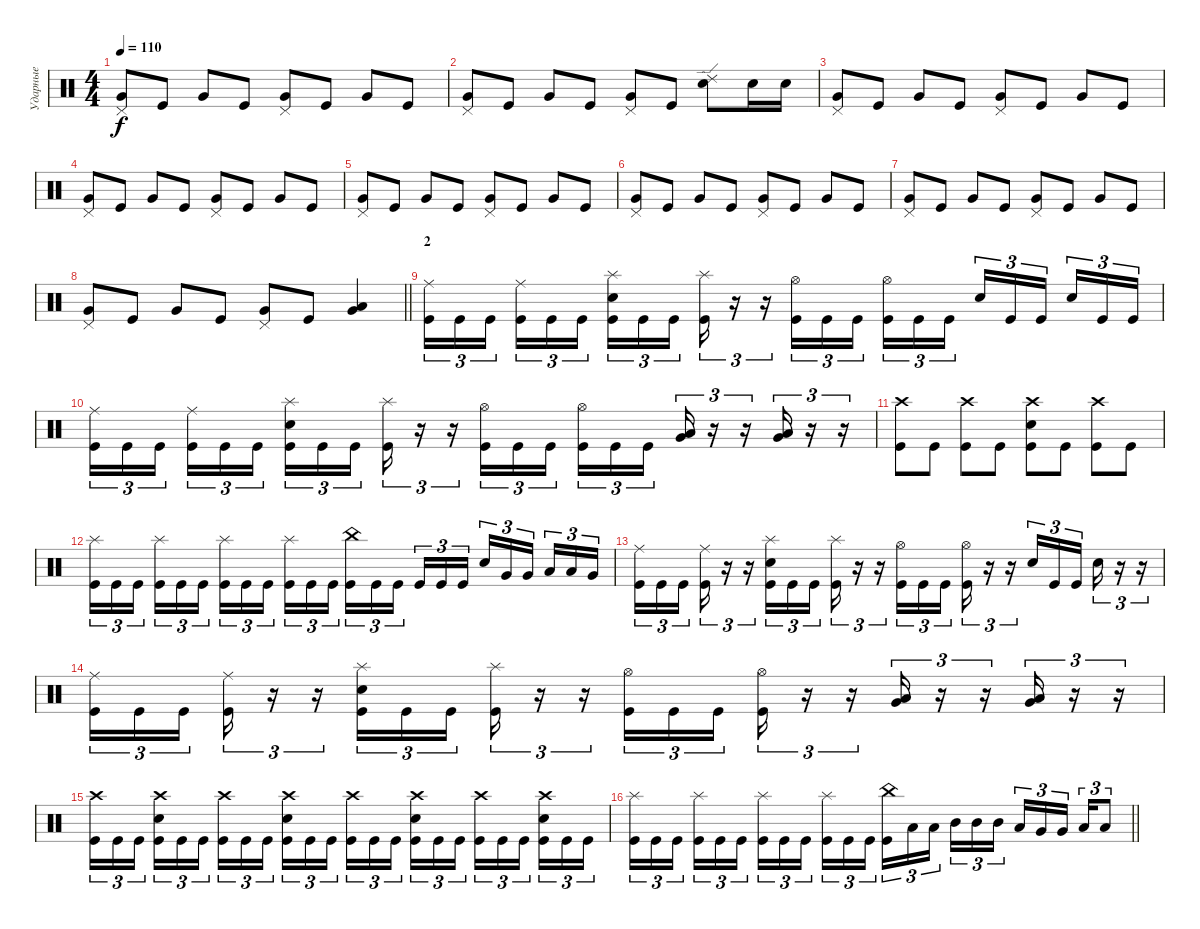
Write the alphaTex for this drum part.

\track ("Ударные" "Ударные") {instrument percussion}
\staff {score}
\articulation defaults
\ts (4 4)
\tempo 110
\clef neutral
\ks c
("Pedal Hi-Hat (hit)" "Very Low Tom (hit)").8{dy f} "Kick (hit)".8 "Very Low Tom (hit)".8 "Kick (hit)".8 ("Pedal Hi-Hat (hit)" "Very Low Tom (hit)").8 "Kick (hit)".8 "Very Low Tom (hit)".8 "Kick (hit)".8 |
("Pedal Hi-Hat (hit)" "Very Low Tom (hit)").8 "Kick (hit)".8 "Very Low Tom (hit)".8 "Kick (hit)".8 ("Pedal Hi-Hat (hit)" "Very Low Tom (hit)").8 "Kick (hit)".8 ("Ride (edge) 2" "Electric Snare (hit)").8 "Electric Snare (hit)".16 "Electric Snare (hit)".16 |
("Pedal Hi-Hat (hit)" "Very Low Tom (hit)").8 "Kick (hit)".8 "Very Low Tom (hit)".8 "Kick (hit)".8 ("Pedal Hi-Hat (hit)" "Very Low Tom (hit)").8 "Kick (hit)".8 "Very Low Tom (hit)".8 "Kick (hit)".8 |
("Pedal Hi-Hat (hit)" "Very Low Tom (hit)").8 "Kick (hit)".8 "Very Low Tom (hit)".8 "Kick (hit)".8 ("Pedal Hi-Hat (hit)" "Very Low Tom (hit)").8 "Kick (hit)".8 "Very Low Tom (hit)".8 "Kick (hit)".8 |
("Pedal Hi-Hat (hit)" "Very Low Tom (hit)").8 "Kick (hit)".8 "Very Low Tom (hit)".8 "Kick (hit)".8 ("Pedal Hi-Hat (hit)" "Very Low Tom (hit)").8 "Kick (hit)".8 "Very Low Tom (hit)".8 "Kick (hit)".8 |
("Pedal Hi-Hat (hit)" "Very Low Tom (hit)").8 "Kick (hit)".8 "Very Low Tom (hit)".8 "Kick (hit)".8 ("Pedal Hi-Hat (hit)" "Very Low Tom (hit)").8 "Kick (hit)".8 "Very Low Tom (hit)".8 "Kick (hit)".8 |
("Pedal Hi-Hat (hit)" "Very Low Tom (hit)").8 "Kick (hit)".8 "Very Low Tom (hit)".8 "Kick (hit)".8 ("Pedal Hi-Hat (hit)" "Very Low Tom (hit)").8 "Kick (hit)".8 "Very Low Tom (hit)".8 "Kick (hit)".8 |
\barLineRight lightlight
("Pedal Hi-Hat (hit)" "Very Low Tom (hit)").8 "Kick (hit)".8 "Very Low Tom (hit)".8 "Kick (hit)".8 ("Pedal Hi-Hat (hit)" "Very Low Tom (hit)").8 "Kick (hit)".8 ("Low Floor Tom (hit)" "Very Low Tom (hit)").4 |
\section ("" "2")
("Ride (middle)" "Kick (hit)").16{tu (3 2)} "Kick (hit)".16{tu (3 2)} "Kick (hit)".16{tu (3 2) beam splitsecondary} ("Ride (middle)" "Kick (hit)").16{tu (3 2)} "Kick (hit)".16{tu (3 2)} "Kick (hit)".16{tu (3 2)} ("Splash (hit)" "Electric Snare (hit)" "Kick (hit)").16{tu (3 2)} "Kick (hit)".16{tu (3 2)} "Kick (hit)".16{tu (3 2) beam splitsecondary} ("Splash (hit)" "Kick (hit)").16{tu (3 2)} r.16{tu (3 2)} r.16{tu (3 2)} ("Hi-Hat (open)" "Kick (hit)").16{tu (3 2)} "Kick (hit)".16{tu (3 2)} "Kick (hit)".16{tu (3 2) beam splitsecondary} ("Hi-Hat (open)" "Kick (hit)").16{tu (3 2)} "Kick (hit)".16{tu (3 2)} "Kick (hit)".16{tu (3 2)} "Electric Snare (hit)".16{tu (3 2)} "Kick (hit)".16{tu (3 2)} "Kick (hit)".16{tu (3 2) beam splitsecondary} "Electric Snare (hit)".16{tu (3 2)} "Kick (hit)".16{tu (3 2)} "Kick (hit)".16{tu (3 2)} |
("Ride (middle)" "Kick (hit)").16{tu (3 2)} "Kick (hit)".16{tu (3 2)} "Kick (hit)".16{tu (3 2) beam splitsecondary} ("Ride (middle)" "Kick (hit)").16{tu (3 2)} "Kick (hit)".16{tu (3 2)} "Kick (hit)".16{tu (3 2)} ("Splash (hit)" "Electric Snare (hit)" "Kick (hit)").16{tu (3 2)} "Kick (hit)".16{tu (3 2)} "Kick (hit)".16{tu (3 2) beam splitsecondary} ("Splash (hit)" "Kick (hit)").16{tu (3 2)} r.16{tu (3 2)} r.16{tu (3 2)} ("Hi-Hat (open)" "Kick (hit)").16{tu (3 2)} "Kick (hit)".16{tu (3 2)} "Kick (hit)".16{tu (3 2) beam splitsecondary} ("Hi-Hat (open)" "Kick (hit)").16{tu (3 2)} "Kick (hit)".16{tu (3 2)} "Kick (hit)".16{tu (3 2)} ("Very Low Tom (hit)" "Low Tom (hit)").16{tu (3 2)} r.16{tu (3 2)} r.16{tu (3 2)} ("Very Low Tom (hit)" "Low Tom (hit)").16{tu (3 2)} r.16{tu (3 2)} r.16{tu (3 2)} |
("Crash high (hit)" "Kick (hit)").8 "Kick (hit)".8 ("Crash high (hit)" "Kick (hit)").8 "Kick (hit)".8 ("Crash high (hit)" "Electric Snare (hit)" "Kick (hit)").8 "Kick (hit)".8 ("Crash high (hit)" "Kick (hit)").8 "Kick (hit)".8 |
("Splash (hit)" "Kick (hit)").16{tu (3 2)} "Kick (hit)".16{tu (3 2)} "Kick (hit)".16{tu (3 2) beam splitsecondary} ("Splash (hit)" "Kick (hit)").16{tu (3 2)} "Kick (hit)".16{tu (3 2)} "Kick (hit)".16{tu (3 2)} ("Splash (hit)" "Kick (hit)").16{tu (3 2)} "Kick (hit)".16{tu (3 2)} "Kick (hit)".16{tu (3 2) beam splitsecondary} ("Splash (hit)" "Kick (hit)").16{tu (3 2)} "Kick (hit)".16{tu (3 2)} "Kick (hit)".16{tu (3 2)} ("China (hit)" "Kick (hit)").16{tu (3 2)} "Kick (hit)".16{tu (3 2)} "Kick (hit)".16{tu (3 2) beam splitsecondary} "Kick (hit)".16{tu (3 2)} "Kick (hit)".16{tu (3 2)} "Kick (hit)".16{tu (3 2)} "Electric Snare (hit)".16{tu (3 2)} "Very Low Tom (hit)".16{tu (3 2)} "Very Low Tom (hit)".16{tu (3 2) beam splitsecondary} "Low Tom (hit)".16{tu (3 2)} "Low Tom (hit)".16{tu (3 2)} "Very Low Tom (hit)".16{tu (3 2)} |
("Ride (middle)" "Kick (hit)").16{tu (3 2)} "Kick (hit)".16{tu (3 2)} "Kick (hit)".16{tu (3 2) beam splitsecondary} ("Ride (middle)" "Kick (hit)").16{tu (3 2)} r.16{tu (3 2)} r.16{tu (3 2)} ("Splash (hit)" "Electric Snare (hit)" "Kick (hit)").16{tu (3 2)} "Kick (hit)".16{tu (3 2)} "Kick (hit)".16{tu (3 2) beam splitsecondary} ("Splash (hit)" "Kick (hit)").16{tu (3 2)} r.16{tu (3 2)} r.16{tu (3 2)} ("Hi-Hat (open)" "Kick (hit)").16{tu (3 2)} "Kick (hit)".16{tu (3 2)} "Kick (hit)".16{tu (3 2) beam splitsecondary} ("Hi-Hat (open)" "Kick (hit)").16{tu (3 2)} r.16{tu (3 2)} r.16{tu (3 2)} "Electric Snare (hit)".16{tu (3 2)} "Kick (hit)".16{tu (3 2)} "Kick (hit)".16{tu (3 2) beam splitsecondary} "Electric Snare (hit)".16{tu (3 2)} r.16{tu (3 2)} r.16{tu (3 2)} |
("Ride (middle)" "Kick (hit)").16{tu (3 2)} "Kick (hit)".16{tu (3 2)} "Kick (hit)".16{tu (3 2) beam splitsecondary} ("Ride (middle)" "Kick (hit)").16{tu (3 2)} r.16{tu (3 2)} r.16{tu (3 2)} ("Splash (hit)" "Electric Snare (hit)" "Kick (hit)").16{tu (3 2)} "Kick (hit)".16{tu (3 2)} "Kick (hit)".16{tu (3 2) beam splitsecondary} ("Splash (hit)" "Kick (hit)").16{tu (3 2)} r.16{tu (3 2)} r.16{tu (3 2)} ("Hi-Hat (open)" "Kick (hit)").16{tu (3 2)} "Kick (hit)".16{tu (3 2)} "Kick (hit)".16{tu (3 2) beam splitsecondary} ("Hi-Hat (open)" "Kick (hit)").16{tu (3 2)} r.16{tu (3 2)} r.16{tu (3 2)} ("Very Low Tom (hit)" "Low Tom (hit)").16{tu (3 2)} r.16{tu (3 2)} r.16{tu (3 2)} ("Very Low Tom (hit)" "Low Tom (hit)").16{tu (3 2)} r.16{tu (3 2)} r.16{tu (3 2)} |
("Crash high (hit)" "Kick (hit)").16{tu (3 2)} "Kick (hit)".16{tu (3 2)} "Kick (hit)".16{tu (3 2) beam splitsecondary} ("Crash high (hit)" "Electric Snare (hit)" "Kick (hit)").16{tu (3 2)} "Kick (hit)".16{tu (3 2)} "Kick (hit)".16{tu (3 2)} ("Crash high (hit)" "Kick (hit)").16{tu (3 2)} "Kick (hit)".16{tu (3 2)} "Kick (hit)".16{tu (3 2) beam splitsecondary} ("Crash high (hit)" "Electric Snare (hit)" "Kick (hit)").16{tu (3 2)} "Kick (hit)".16{tu (3 2)} "Kick (hit)".16{tu (3 2)} ("Crash high (hit)" "Kick (hit)").16{tu (3 2)} "Kick (hit)".16{tu (3 2)} "Kick (hit)".16{tu (3 2) beam splitsecondary} ("Crash high (hit)" "Electric Snare (hit)" "Kick (hit)").16{tu (3 2)} "Kick (hit)".16{tu (3 2)} "Kick (hit)".16{tu (3 2)} ("Crash high (hit)" "Kick (hit)").16{tu (3 2)} "Kick (hit)".16{tu (3 2)} "Kick (hit)".16{tu (3 2) beam splitsecondary} ("Crash high (hit)" "Electric Snare (hit)" "Kick (hit)").16{tu (3 2)} "Kick (hit)".16{tu (3 2)} "Kick (hit)".16{tu (3 2)} |
\barLineRight lightlight
("Splash (hit)" "Kick (hit)").16{tu (3 2)} "Kick (hit)".16{tu (3 2)} "Kick (hit)".16{tu (3 2) beam splitsecondary} ("Splash (hit)" "Kick (hit)").16{tu (3 2)} "Kick (hit)".16{tu (3 2)} "Kick (hit)".16{tu (3 2)} ("Splash (hit)" "Kick (hit)").16{tu (3 2)} "Kick (hit)".16{tu (3 2)} "Kick (hit)".16{tu (3 2) beam splitsecondary} ("Splash (hit)" "Kick (hit)").16{tu (3 2)} "Kick (hit)".16{tu (3 2)} "Kick (hit)".16{tu (3 2)} ("China (hit)" "Kick (hit)").16{tu (3 2)} "Low Tom (hit)".16{tu (3 2)} "Low Tom (hit)".16{tu (3 2) beam splitsecondary} "Mid Tom (hit)".16{tu (3 2)} "Mid Tom (hit)".16{tu (3 2)} "Mid Tom (hit)".16{tu (3 2)} "Low Tom (hit)".16{tu (3 2)} "Very Low Tom (hit)".16{tu (3 2)} "Very Low Tom (hit)".16{tu (3 2) beam splitsecondary} "Low Floor Tom (hit)".16{tu (3 2)} "Low Floor Tom (hit)".8{tu (3 2)}
